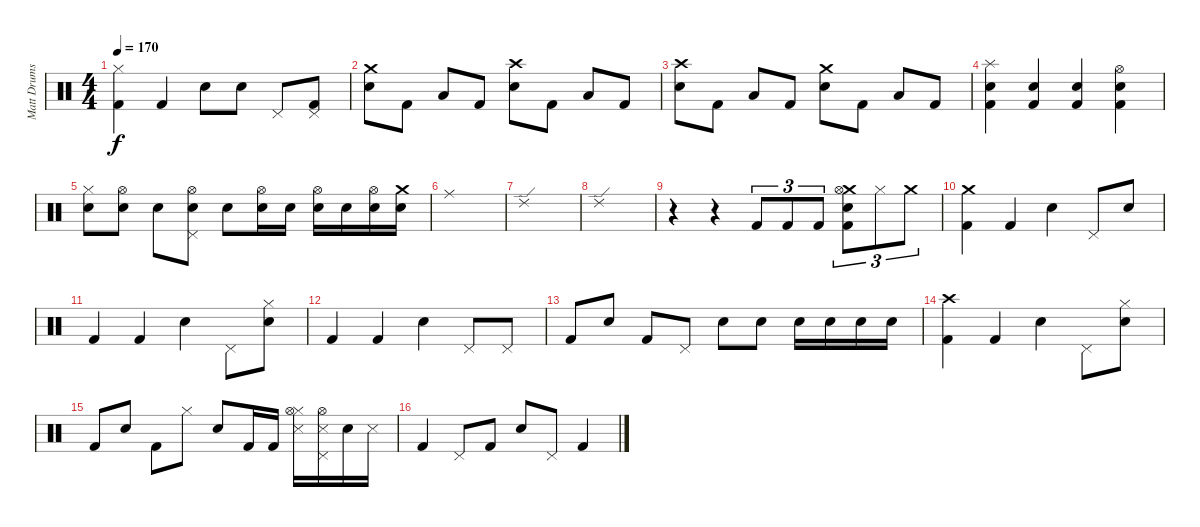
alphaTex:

\track ("Matt Drums" "Matt Drums") {instrument percussion}
\staff {score}
\articulation defaults
\ts (4 4)
\tempo 170
\clef neutral
\ks c
("Hi-Hat (closed)" "Kick (hit) 2").4{dy f} "Kick (hit) 2".4 "Electric Snare (hit)".8 "Electric Snare (hit)".8 "Pedal Hi-Hat (hit)".8 ("Pedal Hi-Hat (hit)" "Kick (hit) 2").8 |
("Crash medium (hit)" "Electric Snare (hit)").8 "Kick (hit) 2".8 "Low Tom (hit)".8 "Kick (hit) 2".8 ("Crash high (hit)" "Electric Snare (hit)").8 "Kick (hit) 2".8 "Low Tom (hit)".8 "Kick (hit) 2".8 |
("Crash high (hit)" "Electric Snare (hit)").8 "Kick (hit) 2".8 "Low Tom (hit)".8 "Kick (hit) 2".8 ("Crash medium (hit)" "Electric Snare (hit)").8 "Kick (hit) 2".8 "Low Tom (hit)".8 "Kick (hit) 2".8 |
("Splash (hit)" "Electric Snare (hit)" "Kick (hit) 2").4 ("Electric Snare (hit)" "Kick (hit) 2").4 ("Electric Snare (hit)" "Kick (hit) 2").4 ("Electric Snare (hit)" "Kick (hit) 2" "Hi-Hat (open)").4 |
("Hi-Hat (closed)" "Electric Snare (hit)").8 ("Electric Snare (hit)" "Hi-Hat (open)").8 "Electric Snare (hit)".8 ("Pedal Hi-Hat (hit)" "Electric Snare (hit)" "Hi-Hat (open)").8 "Electric Snare (hit)".8 ("Electric Snare (hit)" "Hi-Hat (open)").16 "Electric Snare (hit)".16 ("Electric Snare (hit)" "Hi-Hat (open)").16 "Electric Snare (hit)".16 ("Electric Snare (hit)" "Hi-Hat (open)").16 ("Crash medium (hit)" "Electric Snare (hit)").16 |
"Ride (middle)".1 |
"Ride (edge) 2".1 |
"Ride (edge) 2".1 |
r.4 r.4 "Kick (hit) 2".8{tu (3 2)} "Kick (hit) 2".8{tu (3 2)} "Kick (hit) 2".8{tu (3 2)} ("Crash medium (hit)" "Electric Snare (hit)" "Kick (hit) 2" "Hi-Hat (open)").8{tu (3 2)} "Hi-Hat (closed)".8{tu (3 2)} "Crash medium (hit)".8{tu (3 2)} |
("Crash medium (hit)" "Kick (hit) 2").4 "Kick (hit) 2".4 "Electric Snare (hit)".4 "Pedal Hi-Hat (hit)".8 "Electric Snare (hit)".8 |
"Kick (hit) 2".4 "Kick (hit) 2".4 "Electric Snare (hit)".4 "Pedal Hi-Hat (hit)".8 ("Hi-Hat (closed)" "Electric Snare (hit)").8 |
"Kick (hit) 2".4 "Kick (hit) 2".4 "Electric Snare (hit)".4 "Pedal Hi-Hat (hit)".8 "Pedal Hi-Hat (hit)".8 |
"Kick (hit) 2".8 "Electric Snare (hit)".8 "Kick (hit) 2".8 "Pedal Hi-Hat (hit)".8 "Electric Snare (hit)".8 "Electric Snare (hit)".8 "Electric Snare (hit)".16 "Electric Snare (hit)".16 "Electric Snare (hit)".16 "Electric Snare (hit)".16 |
("Crash high (hit)" "Kick (hit) 2").4 "Kick (hit) 2".4 "Electric Snare (hit)".4 "Pedal Hi-Hat (hit)".8 ("Hi-Hat (closed)" "Electric Snare (hit)").8 |
"Kick (hit) 2".8 "Electric Snare (hit)".8 "Kick (hit) 2".8 "Hi-Hat (closed)".8 "Electric Snare (hit)".8 "Kick (hit) 2".16 "Kick (hit) 2".16 ("Hi-Hat (closed)" "Snare (side stick) 3" "Hi-Hat (open)").16 ("Pedal Hi-Hat (hit)" "Snare (side stick) 3" "Hi-Hat (open)").16 "Electric Snare (hit)".16 "Snare (side stick) 3".16 |
"Kick (hit) 2".4 "Pedal Hi-Hat (hit)".8 "Kick (hit) 2".8 "Electric Snare (hit)".8 "Pedal Hi-Hat (hit)".8 "Kick (hit) 2".4
